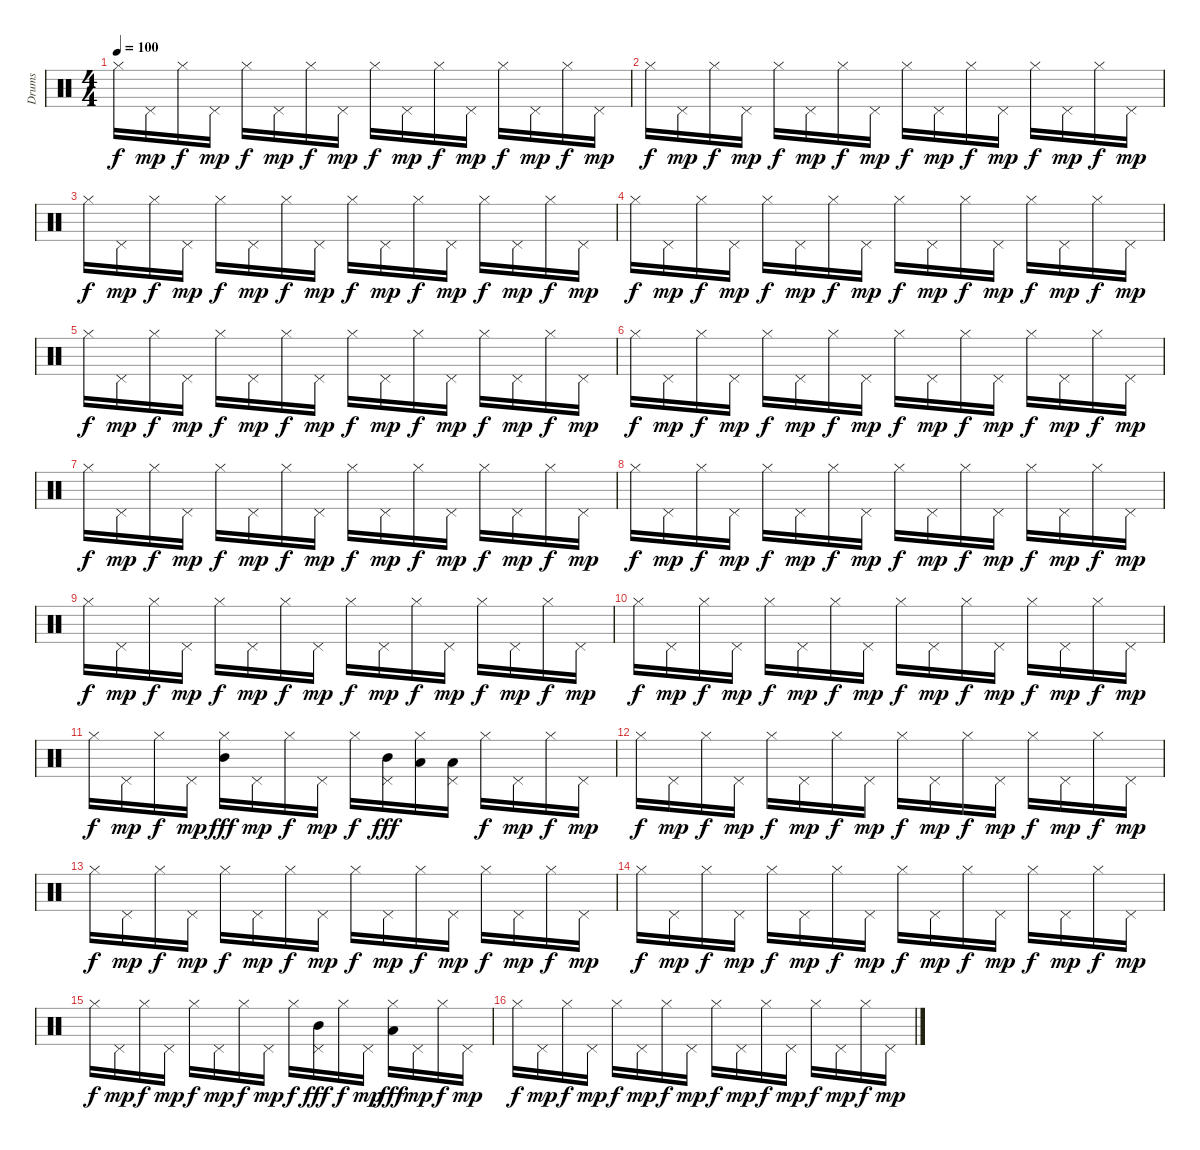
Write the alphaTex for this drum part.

\track ("Drums" "Drums") {instrument percussion}
\staff {score}
\articulation defaults
\ts (4 4)
\tempo 100
\clef neutral
\ks c "Hi-Hat (closed)".16{dy f} "Pedal Hi-Hat (hit)".16{dy mp} "Hi-Hat (closed)".16{dy f} "Pedal Hi-Hat (hit)".16{dy mp} "Hi-Hat (closed)".16{dy f} "Pedal Hi-Hat (hit)".16{dy mp} "Hi-Hat (closed)".16{dy f} "Pedal Hi-Hat (hit)".16{dy mp} "Hi-Hat (closed)".16{dy f} "Pedal Hi-Hat (hit)".16{dy mp} "Hi-Hat (closed)".16{dy f} "Pedal Hi-Hat (hit)".16{dy mp} "Hi-Hat (closed)".16{dy f} "Pedal Hi-Hat (hit)".16{dy mp} "Hi-Hat (closed)".16{dy f} "Pedal Hi-Hat (hit)".16{dy mp}
|
"Hi-Hat (closed)".16{dy f} "Pedal Hi-Hat (hit)".16{dy mp} "Hi-Hat (closed)".16{dy f} "Pedal Hi-Hat (hit)".16{dy mp} "Hi-Hat (closed)".16{dy f} "Pedal Hi-Hat (hit)".16{dy mp} "Hi-Hat (closed)".16{dy f} "Pedal Hi-Hat (hit)".16{dy mp} "Hi-Hat (closed)".16{dy f} "Pedal Hi-Hat (hit)".16{dy mp} "Hi-Hat (closed)".16{dy f} "Pedal Hi-Hat (hit)".16{dy mp} "Hi-Hat (closed)".16{dy f} "Pedal Hi-Hat (hit)".16{dy mp} "Hi-Hat (closed)".16{dy f} "Pedal Hi-Hat (hit)".16{dy mp} |
"Hi-Hat (closed)".16{dy f} "Pedal Hi-Hat (hit)".16{dy mp} "Hi-Hat (closed)".16{dy f} "Pedal Hi-Hat (hit)".16{dy mp} "Hi-Hat (closed)".16{dy f} "Pedal Hi-Hat (hit)".16{dy mp} "Hi-Hat (closed)".16{dy f} "Pedal Hi-Hat (hit)".16{dy mp} "Hi-Hat (closed)".16{dy f} "Pedal Hi-Hat (hit)".16{dy mp} "Hi-Hat (closed)".16{dy f} "Pedal Hi-Hat (hit)".16{dy mp} "Hi-Hat (closed)".16{dy f} "Pedal Hi-Hat (hit)".16{dy mp} "Hi-Hat (closed)".16{dy f} "Pedal Hi-Hat (hit)".16{dy mp} |
"Hi-Hat (closed)".16{dy f} "Pedal Hi-Hat (hit)".16{dy mp} "Hi-Hat (closed)".16{dy f} "Pedal Hi-Hat (hit)".16{dy mp} "Hi-Hat (closed)".16{dy f} "Pedal Hi-Hat (hit)".16{dy mp} "Hi-Hat (closed)".16{dy f} "Pedal Hi-Hat (hit)".16{dy mp} "Hi-Hat (closed)".16{dy f} "Pedal Hi-Hat (hit)".16{dy mp} "Hi-Hat (closed)".16{dy f} "Pedal Hi-Hat (hit)".16{dy mp} "Hi-Hat (closed)".16{dy f} "Pedal Hi-Hat (hit)".16{dy mp} "Hi-Hat (closed)".16{dy f} "Pedal Hi-Hat (hit)".16{dy mp} |
"Hi-Hat (closed)".16{dy f} "Pedal Hi-Hat (hit)".16{dy mp} "Hi-Hat (closed)".16{dy f} "Pedal Hi-Hat (hit)".16{dy mp} "Hi-Hat (closed)".16{dy f} "Pedal Hi-Hat (hit)".16{dy mp} "Hi-Hat (closed)".16{dy f} "Pedal Hi-Hat (hit)".16{dy mp} "Hi-Hat (closed)".16{dy f} "Pedal Hi-Hat (hit)".16{dy mp} "Hi-Hat (closed)".16{dy f} "Pedal Hi-Hat (hit)".16{dy mp} "Hi-Hat (closed)".16{dy f} "Pedal Hi-Hat (hit)".16{dy mp} "Hi-Hat (closed)".16{dy f} "Pedal Hi-Hat (hit)".16{dy mp} |
"Hi-Hat (closed)".16{dy f} "Pedal Hi-Hat (hit)".16{dy mp} "Hi-Hat (closed)".16{dy f} "Pedal Hi-Hat (hit)".16{dy mp} "Hi-Hat (closed)".16{dy f} "Pedal Hi-Hat (hit)".16{dy mp} "Hi-Hat (closed)".16{dy f} "Pedal Hi-Hat (hit)".16{dy mp} "Hi-Hat (closed)".16{dy f} "Pedal Hi-Hat (hit)".16{dy mp} "Hi-Hat (closed)".16{dy f} "Pedal Hi-Hat (hit)".16{dy mp} "Hi-Hat (closed)".16{dy f} "Pedal Hi-Hat (hit)".16{dy mp} "Hi-Hat (closed)".16{dy f} "Pedal Hi-Hat (hit)".16{dy mp} |
"Hi-Hat (closed)".16{dy f} "Pedal Hi-Hat (hit)".16{dy mp} "Hi-Hat (closed)".16{dy f} "Pedal Hi-Hat (hit)".16{dy mp} "Hi-Hat (closed)".16{dy f} "Pedal Hi-Hat (hit)".16{dy mp} "Hi-Hat (closed)".16{dy f} "Pedal Hi-Hat (hit)".16{dy mp} "Hi-Hat (closed)".16{dy f} "Pedal Hi-Hat (hit)".16{dy mp} "Hi-Hat (closed)".16{dy f} "Pedal Hi-Hat (hit)".16{dy mp} "Hi-Hat (closed)".16{dy f} "Pedal Hi-Hat (hit)".16{dy mp} "Hi-Hat (closed)".16{dy f} "Pedal Hi-Hat (hit)".16{dy mp} |
"Hi-Hat (closed)".16{dy f} "Pedal Hi-Hat (hit)".16{dy mp} "Hi-Hat (closed)".16{dy f} "Pedal Hi-Hat (hit)".16{dy mp} "Hi-Hat (closed)".16{dy f} "Pedal Hi-Hat (hit)".16{dy mp} "Hi-Hat (closed)".16{dy f} "Pedal Hi-Hat (hit)".16{dy mp} "Hi-Hat (closed)".16{dy f} "Pedal Hi-Hat (hit)".16{dy mp} "Hi-Hat (closed)".16{dy f} "Pedal Hi-Hat (hit)".16{dy mp} "Hi-Hat (closed)".16{dy f} "Pedal Hi-Hat (hit)".16{dy mp} "Hi-Hat (closed)".16{dy f} "Pedal Hi-Hat (hit)".16{dy mp} |
"Hi-Hat (closed)".16{dy f} "Pedal Hi-Hat (hit)".16{dy mp} "Hi-Hat (closed)".16{dy f} "Pedal Hi-Hat (hit)".16{dy mp} "Hi-Hat (closed)".16{dy f} "Pedal Hi-Hat (hit)".16{dy mp} "Hi-Hat (closed)".16{dy f} "Pedal Hi-Hat (hit)".16{dy mp} "Hi-Hat (closed)".16{dy f} "Pedal Hi-Hat (hit)".16{dy mp} "Hi-Hat (closed)".16{dy f} "Pedal Hi-Hat (hit)".16{dy mp} "Hi-Hat (closed)".16{dy f} "Pedal Hi-Hat (hit)".16{dy mp} "Hi-Hat (closed)".16{dy f} "Pedal Hi-Hat (hit)".16{dy mp} |
"Hi-Hat (closed)".16{dy f} "Pedal Hi-Hat (hit)".16{dy mp} "Hi-Hat (closed)".16{dy f} "Pedal Hi-Hat (hit)".16{dy mp} "Hi-Hat (closed)".16{dy f} "Pedal Hi-Hat (hit)".16{dy mp} "Hi-Hat (closed)".16{dy f} "Pedal Hi-Hat (hit)".16{dy mp} "Hi-Hat (closed)".16{dy f} "Pedal Hi-Hat (hit)".16{dy mp} "Hi-Hat (closed)".16{dy f} "Pedal Hi-Hat (hit)".16{dy mp} "Hi-Hat (closed)".16{dy f} "Pedal Hi-Hat (hit)".16{dy mp} "Hi-Hat (closed)".16{dy f} "Pedal Hi-Hat (hit)".16{dy mp} |
"Hi-Hat (closed)".16{dy f} "Pedal Hi-Hat (hit)".16{dy mp} "Hi-Hat (closed)".16{dy f} "Pedal Hi-Hat (hit)".16{dy mp} ("Hi-Hat (closed)" "Mid Tom (hit)").16{dy fff} "Pedal Hi-Hat (hit)".16{dy mp} "Hi-Hat (closed)".16{dy f} "Pedal Hi-Hat (hit)".16{dy mp} "Hi-Hat (closed)".16{dy f} ("Pedal Hi-Hat (hit)" "Mid Tom (hit)").16{dy fff} ("Hi-Hat (closed)" "Low Tom (hit)").16 ("Pedal Hi-Hat (hit)" "Low Floor Tom (hit)").16 "Hi-Hat (closed)".16{dy f} "Pedal Hi-Hat (hit)".16{dy mp} "Hi-Hat (closed)".16{dy f} "Pedal Hi-Hat (hit)".16{dy mp} |
"Hi-Hat (closed)".16{dy f} "Pedal Hi-Hat (hit)".16{dy mp} "Hi-Hat (closed)".16{dy f} "Pedal Hi-Hat (hit)".16{dy mp} "Hi-Hat (closed)".16{dy f} "Pedal Hi-Hat (hit)".16{dy mp} "Hi-Hat (closed)".16{dy f} "Pedal Hi-Hat (hit)".16{dy mp} "Hi-Hat (closed)".16{dy f} "Pedal Hi-Hat (hit)".16{dy mp} "Hi-Hat (closed)".16{dy f} "Pedal Hi-Hat (hit)".16{dy mp} "Hi-Hat (closed)".16{dy f} "Pedal Hi-Hat (hit)".16{dy mp} "Hi-Hat (closed)".16{dy f} "Pedal Hi-Hat (hit)".16{dy mp} |
"Hi-Hat (closed)".16{dy f} "Pedal Hi-Hat (hit)".16{dy mp} "Hi-Hat (closed)".16{dy f} "Pedal Hi-Hat (hit)".16{dy mp} "Hi-Hat (closed)".16{dy f} "Pedal Hi-Hat (hit)".16{dy mp} "Hi-Hat (closed)".16{dy f} "Pedal Hi-Hat (hit)".16{dy mp} "Hi-Hat (closed)".16{dy f} "Pedal Hi-Hat (hit)".16{dy mp} "Hi-Hat (closed)".16{dy f} "Pedal Hi-Hat (hit)".16{dy mp} "Hi-Hat (closed)".16{dy f} "Pedal Hi-Hat (hit)".16{dy mp} "Hi-Hat (closed)".16{dy f} "Pedal Hi-Hat (hit)".16{dy mp} |
"Hi-Hat (closed)".16{dy f} "Pedal Hi-Hat (hit)".16{dy mp} "Hi-Hat (closed)".16{dy f} "Pedal Hi-Hat (hit)".16{dy mp} "Hi-Hat (closed)".16{dy f} "Pedal Hi-Hat (hit)".16{dy mp} "Hi-Hat (closed)".16{dy f} "Pedal Hi-Hat (hit)".16{dy mp} "Hi-Hat (closed)".16{dy f} "Pedal Hi-Hat (hit)".16{dy mp} "Hi-Hat (closed)".16{dy f} "Pedal Hi-Hat (hit)".16{dy mp} "Hi-Hat (closed)".16{dy f} "Pedal Hi-Hat (hit)".16{dy mp} "Hi-Hat (closed)".16{dy f} "Pedal Hi-Hat (hit)".16{dy mp} |
"Hi-Hat (closed)".16{dy f} "Pedal Hi-Hat (hit)".16{dy mp} "Hi-Hat (closed)".16{dy f} "Pedal Hi-Hat (hit)".16{dy mp} "Hi-Hat (closed)".16{dy f} "Pedal Hi-Hat (hit)".16{dy mp} "Hi-Hat (closed)".16{dy f} "Pedal Hi-Hat (hit)".16{dy mp} "Hi-Hat (closed)".16{dy f} ("Pedal Hi-Hat (hit)" "Mid Tom (hit)").16{dy fff} "Hi-Hat (closed)".16{dy f} "Pedal Hi-Hat (hit)".16{dy mp} ("Hi-Hat (closed)" "Low Tom (hit)").16{dy fff} "Pedal Hi-Hat (hit)".16{dy mp} "Hi-Hat (closed)".16{dy f} "Pedal Hi-Hat (hit)".16{dy mp} |
"Hi-Hat (closed)".16{dy f} "Pedal Hi-Hat (hit)".16{dy mp} "Hi-Hat (closed)".16{dy f} "Pedal Hi-Hat (hit)".16{dy mp} "Hi-Hat (closed)".16{dy f} "Pedal Hi-Hat (hit)".16{dy mp} "Hi-Hat (closed)".16{dy f} "Pedal Hi-Hat (hit)".16{dy mp} "Hi-Hat (closed)".16{dy f} "Pedal Hi-Hat (hit)".16{dy mp} "Hi-Hat (closed)".16{dy f} "Pedal Hi-Hat (hit)".16{dy mp} "Hi-Hat (closed)".16{dy f} "Pedal Hi-Hat (hit)".16{dy mp} "Hi-Hat (closed)".16{dy f} "Pedal Hi-Hat (hit)".16{dy mp}
